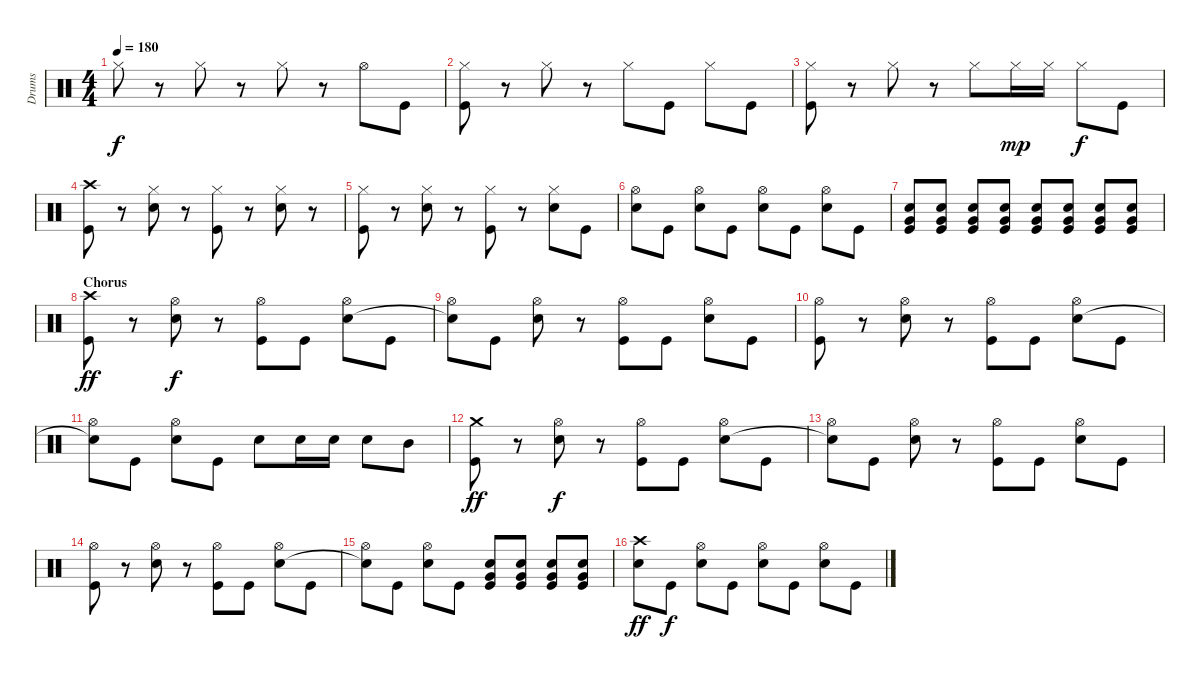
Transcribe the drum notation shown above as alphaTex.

\track ("Drums" "Drums") {instrument percussion}
\staff {score}
\articulation defaults
\ts (4 4)
\tempo 180
\clef neutral
\ks c "Hi-Hat (closed)".8{dy f}
r.8 "Hi-Hat (closed)".8 r.8 "Hi-Hat (closed)".8 r.8 "Hi-Hat (open)".8 "Kick (hit)".8 |
("Hi-Hat (closed)" "Kick (hit)").8 r.8 "Hi-Hat (closed)".8 r.8 "Hi-Hat (closed)".8 "Kick (hit)".8 "Hi-Hat (closed)".8 "Kick (hit)".8 |
("Hi-Hat (closed)" "Kick (hit)").8 r.8 "Hi-Hat (closed)".8 r.8 "Hi-Hat (closed)".8 "Hi-Hat (closed)".16{dy mp} "Hi-Hat (closed)".16 "Hi-Hat (closed)".8{dy f} "Kick (hit)".8 |
("Crash high (hit)" "Kick (hit)").8 r.8 ("Hi-Hat (closed)" "Snare (hit) 2").8 r.8 ("Hi-Hat (closed)" "Kick (hit)").8 r.8 ("Hi-Hat (closed)" "Snare (hit) 2").8 r.8 |
("Hi-Hat (closed)" "Kick (hit)").8 r.8 ("Hi-Hat (closed)" "Snare (hit) 2").8 r.8 ("Hi-Hat (closed)" "Kick (hit)").8 r.8 ("Hi-Hat (closed)" "Snare (hit) 2").8 "Kick (hit)".8 |
("Hi-Hat (open)" "Snare (hit) 2").8 "Kick (hit)".8 ("Hi-Hat (open)" "Snare (hit) 2").8 "Kick (hit)".8 ("Hi-Hat (open)" "Snare (hit) 2").8 "Kick (hit)".8 ("Hi-Hat (open)" "Snare (hit) 2").8 "Kick (hit)".8 |
("Very Low Tom (hit)" "Snare (hit) 2" "Kick (hit)").8 ("Very Low Tom (hit)" "Snare (hit) 2" "Kick (hit)").8 ("Very Low Tom (hit)" "Snare (hit) 2" "Kick (hit)").8 ("Very Low Tom (hit)" "Snare (hit) 2" "Kick (hit)").8 ("Very Low Tom (hit)" "Snare (hit) 2" "Kick (hit)").8 ("Very Low Tom (hit)" "Snare (hit) 2" "Kick (hit)").8 ("Very Low Tom (hit)" "Snare (hit) 2" "Kick (hit)").8 ("Very Low Tom (hit)" "Snare (hit) 2" "Kick (hit)").8 |
\section ("" "Chorus")
("Crash high (hit)" "Kick (hit)").8{dy ff} r.8 ("Hi-Hat (open)" "Snare (hit) 2").8{dy f} r.8 ("Hi-Hat (open)" "Kick (hit)").8 "Kick (hit)".8 ("Hi-Hat (open)" "Snare (hit) 2").8 "Kick (hit)".8 |
("Hi-Hat (open)" "Snare (hit)"{t}).8 "Kick (hit)".8 ("Hi-Hat (open)" "Snare (hit) 2").8 r.8 ("Hi-Hat (open)" "Kick (hit)").8 "Kick (hit)".8 ("Hi-Hat (open)" "Snare (hit) 2").8 "Kick (hit)".8 |
("Hi-Hat (open)" "Kick (hit)").8 r.8 ("Hi-Hat (open)" "Snare (hit) 2").8 r.8 ("Hi-Hat (open)" "Kick (hit)").8 "Kick (hit)".8 ("Hi-Hat (open)" "Snare (hit) 2").8 "Kick (hit)".8 |
("Hi-Hat (open)" "Snare (hit)"{t}).8 "Kick (hit)".8 ("Hi-Hat (open)" "Snare (hit) 2").8 "Kick (hit)".8 "Snare (hit) 2".8 "Snare (hit) 2".16 "Snare (hit) 2".16 "Snare (hit) 2".8 "Mid Tom (hit)".8 |
("Crash medium (hit)" "Kick (hit)").8{dy ff} r.8 ("Hi-Hat (open)" "Snare (hit) 2").8{dy f} r.8 ("Hi-Hat (open)" "Kick (hit)").8 "Kick (hit)".8 ("Hi-Hat (open)" "Snare (hit) 2").8 "Kick (hit)".8 |
("Hi-Hat (open)" "Snare (hit)"{t}).8 "Kick (hit)".8 ("Hi-Hat (open)" "Snare (hit) 2").8 r.8 ("Hi-Hat (open)" "Kick (hit)").8 "Kick (hit)".8 ("Hi-Hat (open)" "Snare (hit) 2").8 "Kick (hit)".8 |
("Hi-Hat (open)" "Kick (hit)").8 r.8 ("Hi-Hat (open)" "Snare (hit) 2").8 r.8 ("Hi-Hat (open)" "Kick (hit)").8 "Kick (hit)".8 ("Hi-Hat (open)" "Snare (hit) 2").8 "Kick (hit)".8 |
("Hi-Hat (open)" "Snare (hit)"{t}).8 "Kick (hit)".8 ("Hi-Hat (open)" "Snare (hit) 2").8 "Kick (hit)".8 ("Very Low Tom (hit)" "Snare (hit) 2" "Kick (hit)").8 ("Very Low Tom (hit)" "Snare (hit) 2" "Kick (hit)").8 ("Very Low Tom (hit)" "Snare (hit) 2" "Kick (hit)").8 ("Very Low Tom (hit)" "Snare (hit) 2" "Kick (hit)").8 |
("Crash high (hit)" "Snare (hit) 2").8{dy ff} "Kick (hit)".8{dy f} ("Hi-Hat (open)" "Snare (hit) 2").8 "Kick (hit)".8 ("Hi-Hat (open)" "Snare (hit) 2").8 "Kick (hit)".8 ("Hi-Hat (open)" "Snare (hit) 2").8 "Kick (hit)".8
